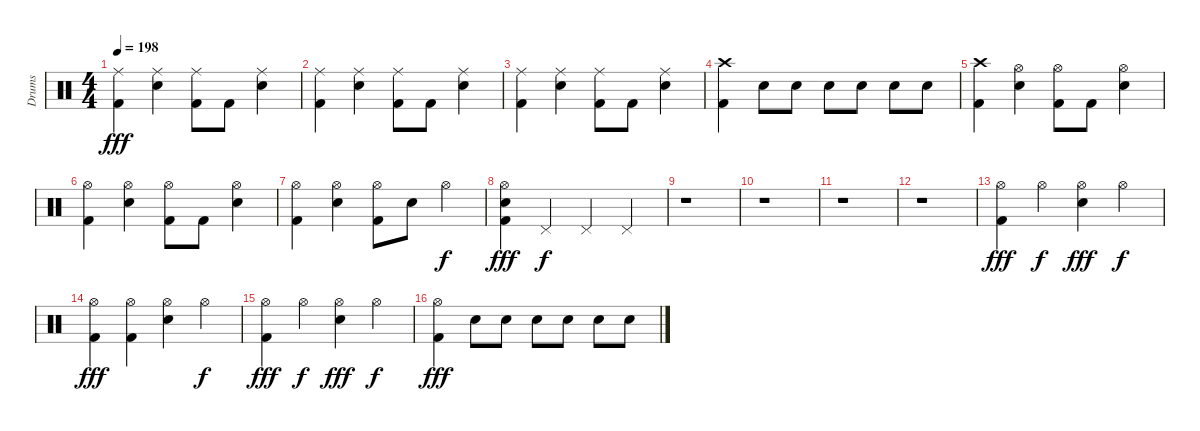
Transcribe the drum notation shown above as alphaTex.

\track ("Drums" "Drums") {instrument percussion}
\staff {score}
\articulation defaults
\ts (4 4)
\tempo 198
\clef neutral
\ks c
("Ride (middle)" "Kick (hit) 2").4{dy fff} ("Ride (middle)" "Electric Snare (hit)").4 ("Ride (middle)" "Kick (hit) 2").8 "Kick (hit) 2".8 ("Ride (middle)" "Electric Snare (hit)").4 |
("Ride (middle)" "Kick (hit) 2").4 ("Ride (middle)" "Electric Snare (hit)").4 ("Ride (middle)" "Kick (hit) 2").8 "Kick (hit) 2".8 ("Ride (middle)" "Electric Snare (hit)").4 |
("Ride (middle)" "Kick (hit) 2").4 ("Ride (middle)" "Electric Snare (hit)").4 ("Ride (middle)" "Kick (hit) 2").8 "Kick (hit) 2".8 ("Ride (middle)" "Electric Snare (hit)").4 |
("Crash high (hit)" "Kick (hit) 2").4 "Electric Snare (hit)".8 "Electric Snare (hit)".8 "Electric Snare (hit)".8 "Electric Snare (hit)".8 "Electric Snare (hit)".8 "Electric Snare (hit)".8 |
("Crash high (hit)" "Kick (hit) 2").4 ("Hi-Hat (open)" "Electric Snare (hit)").4 ("Hi-Hat (open)" "Kick (hit) 2").8 "Kick (hit) 2".8 ("Hi-Hat (open)" "Electric Snare (hit)").4 |
("Hi-Hat (open)" "Kick (hit) 2").4 ("Hi-Hat (open)" "Electric Snare (hit)").4 ("Hi-Hat (open)" "Kick (hit) 2").8 "Kick (hit) 2".8 ("Hi-Hat (open)" "Electric Snare (hit)").4 |
("Hi-Hat (open)" "Kick (hit) 2").4 ("Hi-Hat (open)" "Electric Snare (hit)").4 ("Hi-Hat (open)" "Kick (hit) 2").8 "Electric Snare (hit)".8 "Hi-Hat (open)".4{dy f} |
("Hi-Hat (open)" "Electric Snare (hit)" "Kick (hit) 2").4{dy fff} "Pedal Hi-Hat (hit)".4{dy f} "Pedal Hi-Hat (hit)".4 "Pedal Hi-Hat (hit)".4 |
r.1 |
r.1 |
r.1 |
r.1 |
("Hi-Hat (open)" "Kick (hit) 2").4{dy fff} "Hi-Hat (open)".4{dy f} ("Hi-Hat (open)" "Electric Snare (hit)").4{dy fff} "Hi-Hat (open)".4{dy f} |
("Hi-Hat (open)" "Kick (hit) 2").4{dy fff} ("Hi-Hat (open)" "Kick (hit) 2").4 ("Hi-Hat (open)" "Electric Snare (hit)").4 "Hi-Hat (open)".4{dy f} |
("Hi-Hat (open)" "Kick (hit) 2").4{dy fff} "Hi-Hat (open)".4{dy f} ("Hi-Hat (open)" "Electric Snare (hit)").4{dy fff} "Hi-Hat (open)".4{dy f} |
("Hi-Hat (open)" "Kick (hit) 2").4{dy fff} "Electric Snare (hit)".8 "Electric Snare (hit)".8 "Electric Snare (hit)".8 "Electric Snare (hit)".8 "Electric Snare (hit)".8 "Electric Snare (hit)".8
